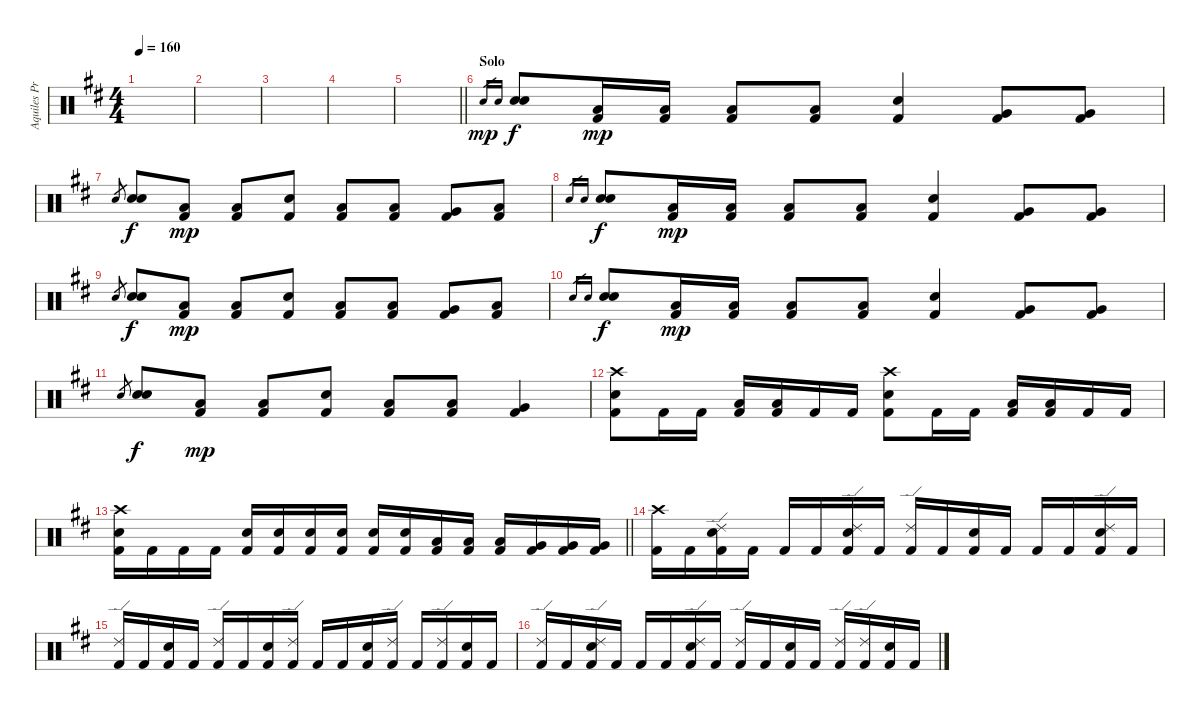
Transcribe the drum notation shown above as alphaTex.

\track ("Aquiles Priester" "Aquiles Pr") {instrument percussion}
\staff {score}
\articulation defaults
\ts (4 4)
\tempo 160
\clef neutral
\ks d
|
|
|
|
\barLineRight lightlight
|
\section ("" "Solo")
"Electric Snare (hit)".16{gr dy mp} "Electric Snare (hit)".16{gr} ("Electric Snare (hit)" "Electric Snare (hit)").8{dy f} ("Low Tom (hit)" "Kick (hit) 2").16{dy mp} ("Low Tom (hit)" "Kick (hit) 2").16 ("Low Tom (hit)" "Kick (hit) 2").8 ("Low Tom (hit)" "Kick (hit) 2").8 ("Electric Snare (hit)" "Kick (hit) 2").4 ("Very Low Tom (hit)" "Kick (hit) 2").8 ("Very Low Tom (hit)" "Kick (hit) 2").8 |
"Electric Snare (hit)".8{gr} ("Electric Snare (hit)" "Electric Snare (hit)").8{dy f} ("Low Tom (hit)" "Kick (hit) 2").8{dy mp} ("Low Tom (hit)" "Kick (hit) 2").8 ("Electric Snare (hit)" "Kick (hit) 2").8 ("Low Tom (hit)" "Kick (hit) 2").8 ("Low Tom (hit)" "Kick (hit) 2").8 ("Very Low Tom (hit)" "Kick (hit) 2").8 ("Low Floor Tom (hit)" "Kick (hit) 2").8 |
"Electric Snare (hit)".16{gr} "Electric Snare (hit)".16{gr} ("Electric Snare (hit)" "Electric Snare (hit)").8{dy f} ("Low Tom (hit)" "Kick (hit) 2").16{dy mp} ("Low Tom (hit)" "Kick (hit) 2").16 ("Low Tom (hit)" "Kick (hit) 2").8 ("Low Tom (hit)" "Kick (hit) 2").8 ("Electric Snare (hit)" "Kick (hit) 2").4 ("Very Low Tom (hit)" "Kick (hit) 2").8 ("Very Low Tom (hit)" "Kick (hit) 2").8 |
"Electric Snare (hit)".8{gr} ("Electric Snare (hit)" "Electric Snare (hit)").8{dy f} ("Low Tom (hit)" "Kick (hit) 2").8{dy mp} ("Low Tom (hit)" "Kick (hit) 2").8 ("Electric Snare (hit)" "Kick (hit) 2").8 ("Low Tom (hit)" "Kick (hit) 2").8 ("Low Tom (hit)" "Kick (hit) 2").8 ("Very Low Tom (hit)" "Kick (hit) 2").8 ("Low Floor Tom (hit)" "Kick (hit) 2").8 |
"Electric Snare (hit)".16{gr} "Electric Snare (hit)".16{gr} ("Electric Snare (hit)" "Electric Snare (hit)").8{dy f} ("Low Tom (hit)" "Kick (hit) 2").16{dy mp} ("Low Tom (hit)" "Kick (hit) 2").16 ("Low Tom (hit)" "Kick (hit) 2").8 ("Low Tom (hit)" "Kick (hit) 2").8 ("Electric Snare (hit)" "Kick (hit) 2").4 ("Very Low Tom (hit)" "Kick (hit) 2").8 ("Very Low Tom (hit)" "Kick (hit) 2").8 |
"Electric Snare (hit)".8{gr} ("Electric Snare (hit)" "Electric Snare (hit)").8{dy f} ("Low Tom (hit)" "Kick (hit) 2").8{dy mp} ("Low Tom (hit)" "Kick (hit) 2").8 ("Electric Snare (hit)" "Kick (hit) 2").8 ("Low Tom (hit)" "Kick (hit) 2").8 ("Low Tom (hit)" "Kick (hit) 2").8 ("Very Low Tom (hit)" "Kick (hit) 2").4 |
("Crash high (hit)" "Electric Snare (hit)" "Kick (hit) 2").8 "Kick (hit) 2".16 "Kick (hit) 2".16 ("Low Tom (hit)" "Kick (hit) 2").16 ("Low Tom (hit)" "Kick (hit) 2").16 "Kick (hit) 2".16 "Kick (hit) 2".16 ("Crash high (hit)" "Electric Snare (hit)" "Kick (hit) 2").8 "Kick (hit) 2".16 "Kick (hit) 2".16 ("Low Tom (hit)" "Kick (hit) 2").16 ("Low Tom (hit)" "Kick (hit) 2").16 "Kick (hit) 2".16 "Kick (hit) 2".16 |
\barLineRight lightlight
("Crash high (hit)" "Electric Snare (hit)" "Kick (hit) 2").16 "Kick (hit) 2".16 "Kick (hit) 2".16 "Kick (hit) 2".16 ("Electric Snare (hit)" "Kick (hit) 2").16 ("Electric Snare (hit)" "Kick (hit) 2").16 ("Electric Snare (hit)" "Kick (hit) 2").16 ("Electric Snare (hit)" "Kick (hit) 2").16 ("Electric Snare (hit)" "Kick (hit) 2").16 ("Electric Snare (hit)" "Kick (hit) 2").16 ("Low Tom (hit)" "Kick (hit) 2").16 ("Low Tom (hit)" "Kick (hit) 2").16 ("Low Tom (hit)" "Kick (hit) 2").16 ("Very Low Tom (hit)" "Kick (hit) 2").16 ("Very Low Tom (hit)" "Kick (hit) 2").16 ("Very Low Tom (hit)" "Kick (hit) 2").16 |
("Crash high (hit)" "Kick (hit) 2").16 "Kick (hit) 2".16 ("Ride (edge) 2" "Electric Snare (hit)" "Kick (hit) 2").16 "Kick (hit) 2".16 "Kick (hit) 2".16 "Kick (hit) 2".16 ("Ride (edge) 2" "Electric Snare (hit)" "Kick (hit) 2").16 "Kick (hit) 2".16 ("Ride (edge) 2" "Kick (hit) 2").16 "Kick (hit) 2".16 ("Electric Snare (hit)" "Kick (hit) 2").16 "Kick (hit) 2".16 "Kick (hit) 2".16 "Kick (hit) 2".16 ("Ride (edge) 2" "Electric Snare (hit)" "Kick (hit) 2").16 "Kick (hit) 2".16 |
("Ride (edge) 2" "Kick (hit) 2").16 "Kick (hit) 2".16 ("Electric Snare (hit)" "Kick (hit) 2").16 "Kick (hit) 2".16 ("Ride (edge) 2" "Kick (hit) 2").16 "Kick (hit) 2".16 ("Electric Snare (hit)" "Kick (hit) 2").16 ("Ride (edge) 2" "Kick (hit) 2").16 "Kick (hit) 2".16 "Kick (hit) 2".16 ("Electric Snare (hit)" "Kick (hit) 2").16 ("Ride (edge) 2" "Kick (hit) 2").16 "Kick (hit) 2".16 ("Ride (edge) 2" "Kick (hit) 2").16 ("Electric Snare (hit)" "Kick (hit) 2").16 "Kick (hit) 2".16 |
("Ride (edge) 2" "Kick (hit) 2").16 "Kick (hit) 2".16 ("Ride (edge) 2" "Electric Snare (hit)" "Kick (hit) 2").16 "Kick (hit) 2".16 "Kick (hit) 2".16 "Kick (hit) 2".16 ("Ride (edge) 2" "Electric Snare (hit)" "Kick (hit) 2").16 "Kick (hit) 2".16 ("Ride (edge) 2" "Kick (hit) 2").16 "Kick (hit) 2".16 ("Electric Snare (hit)" "Kick (hit) 2").16 "Kick (hit) 2".16 ("Ride (edge) 2" "Kick (hit) 2").16 ("Ride (edge) 2" "Kick (hit) 2").16 ("Electric Snare (hit)" "Kick (hit) 2").16 "Kick (hit) 2".16
